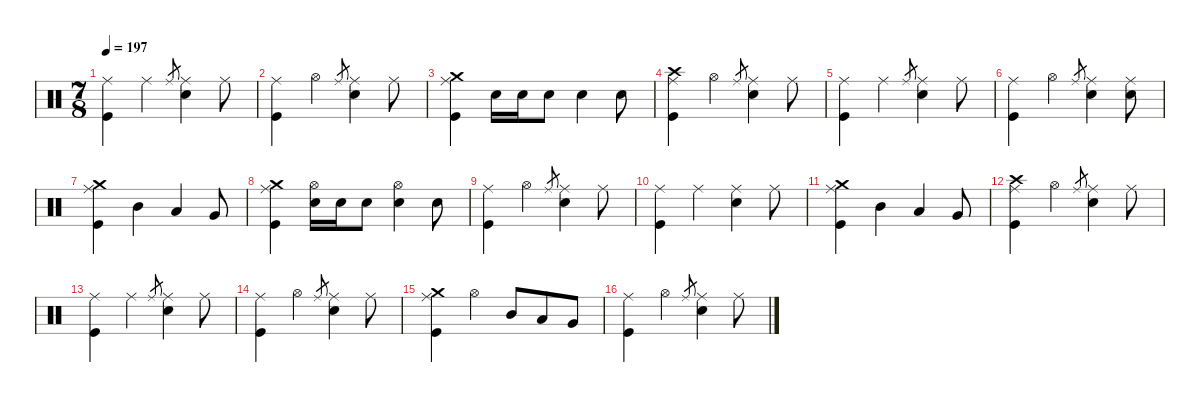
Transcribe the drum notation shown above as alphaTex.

\defaultSystemsLayout 4
\hideDynamics
\bracketExtendMode nobrackets
\singleTrackTrackNamePolicy hidden
\multiTrackTrackNamePolicy hidden
\firstSystemTrackNameMode fullname
\firstSystemTrackNameOrientation horizontal
\otherSystemsTrackNameOrientation horizontal
\track ("Drums" "drm.") {defaultSystemsLayout 4 instrument percussion}
\staff {score}
\articulation defaults
\ts (7 8)
\tempo 197
\clef neutral
\ks c
("Ride (middle)" "Kick (hit)").4{dy f beam Down} "Ride (middle)".4{beam Down} "Ride (middle)".8{gr dy mf beam Up} ("Ride (middle)" "Snare (hit) 2").4{dy f beam Down} "Ride (middle)".8{beam Down} |
("Ride (middle)" "Kick (hit)").4{beam Down} "Hi-Hat (open)".4{beam Down} "Ride (middle)".8{gr dy mf beam Up} ("Ride (middle)" "Snare (hit) 2").4{dy f beam Down} "Ride (middle)".8{beam Down} |
("Crash medium (hit)" "Ride (middle)" "Kick (hit)").4{dy mp beam Down} "Snare (hit) 2".16{beam Down} "Snare (hit) 2".16{beam Down} "Snare (hit) 2".8{dy mf beam Down} "Snare (hit) 2".4{dy f beam Down} "Snare (hit) 2".8{beam Down} |
("Crash high (hit)" "Ride (middle)" "Kick (hit)").4{dy mf beam Down} "Hi-Hat (open)".4{dy f beam Down} "Ride (middle)".8{gr dy mf beam Up} ("Ride (middle)" "Snare (hit) 2").4{dy f beam Down} "Ride (middle)".8{beam Down} |
("Ride (middle)" "Kick (hit)").4{beam Down} "Ride (middle)".4{beam Down} "Ride (middle)".8{gr dy mf beam Up} ("Ride (middle)" "Snare (hit) 2").4{dy f beam Down} "Ride (middle)".8{beam Down} |
("Ride (middle)" "Kick (hit)").4{beam Down} "Hi-Hat (open)".4{beam Down} "Ride (middle)".8{gr dy mf beam Up} ("Ride (middle)" "Snare (hit) 2").4{dy f beam Down} ("Ride (middle)" "Snare (hit) 2").8{beam Down} |
("Crash medium (hit)" "Ride (middle)" "Kick (hit)").4{dy mp beam Down} "Mid Tom (hit)".4{dy f beam Down} "Low Tom (hit)".4{beam Up} "Very Low Tom (hit)".8{beam Up} |
("Crash medium (hit)" "Ride (middle)" "Kick (hit)").4{dy mp beam Down} ("Hi-Hat (open)" "Snare (hit) 2").16{dy f beam Down} "Snare (hit) 2".16{dy mp beam Down} "Snare (hit) 2".8{dy mf beam Down} ("Hi-Hat (open)" "Snare (hit) 2").4{dy f beam Down} "Snare (hit) 2".8{beam Down} |
("Ride (middle)" "Kick (hit)").4{beam Down} "Hi-Hat (open)".4{beam Down} "Ride (middle)".8{gr dy mf beam Up} ("Ride (middle)" "Snare (hit) 2").4{dy f beam Down} "Ride (middle)".8{beam Down} |
("Ride (middle)" "Kick (hit)").4{beam Down} "Ride (middle)".4{beam Down} ("Ride (middle)" "Snare (hit) 2").4{beam Down} "Ride (middle)".8{beam Down} |
("Crash medium (hit)" "Ride (middle)" "Kick (hit)").4{dy mp beam Down} "Mid Tom (hit)".4{dy f beam Down} "Low Tom (hit)".4{beam Up} "Very Low Tom (hit)".8{beam Up} |
("Crash high (hit)" "Ride (middle)" "Kick (hit)").4{dy mf beam Down} "Hi-Hat (open)".4{dy f beam Down} "Ride (middle)".8{gr dy mf beam Up} ("Ride (middle)" "Snare (hit) 2").4{dy f beam Down} "Ride (middle)".8{beam Down} |
("Ride (middle)" "Kick (hit)").4{beam Down} "Ride (middle)".4{beam Down} "Ride (middle)".8{gr dy mf beam Up} ("Ride (middle)" "Snare (hit) 2").4{dy f beam Down} "Ride (middle)".8{beam Down} |
("Ride (middle)" "Kick (hit)").4{beam Down} "Hi-Hat (open)".4{beam Down} "Ride (middle)".8{gr dy mf beam Up} ("Ride (middle)" "Snare (hit) 2").4{dy f beam Down} "Ride (middle)".8{beam Down} |
("Crash medium (hit)" "Ride (middle)" "Kick (hit)").4{dy mp beam Down} "Hi-Hat (open)".4{dy f beam Down} "Mid Tom (hit)".8{beam Up} "Low Tom (hit)".8{beam Up} "Very Low Tom (hit)".8{beam Up} |
("Ride (middle)" "Kick (hit)").4{beam Down} "Hi-Hat (open)".4{beam Down} "Ride (middle)".8{gr dy mf beam Up} ("Ride (middle)" "Snare (hit) 2").4{dy f beam Down} "Ride (middle)".8{beam Down}
